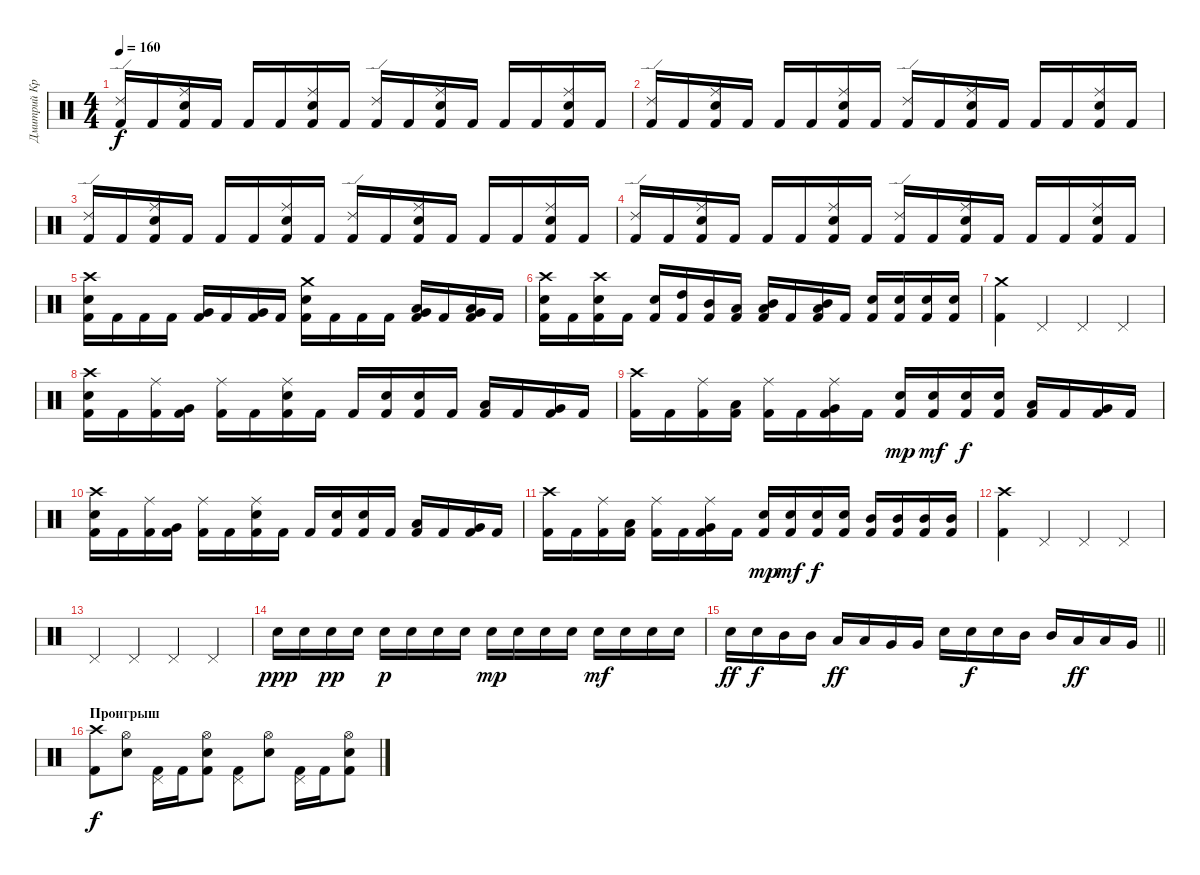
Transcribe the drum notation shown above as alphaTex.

\track ("Дмитрий Кривенков" "Дмитрий Кр") {instrument percussion}
\staff {score}
\articulation defaults
\ts (4 4)
\tempo 160
\clef neutral
\ks c
("Ride (edge) 2" "Kick (hit) 2").16{dy f} "Kick (hit) 2".16 ("Ride (middle)" "Electric Snare (hit)" "Kick (hit) 2").16 "Kick (hit) 2".16 "Kick (hit) 2".16 "Kick (hit) 2".16 ("Ride (middle)" "Electric Snare (hit)" "Kick (hit) 2").16 "Kick (hit) 2".16 ("Ride (edge) 2" "Kick (hit) 2").16 "Kick (hit) 2".16 ("Ride (middle)" "Electric Snare (hit)" "Kick (hit) 2").16 "Kick (hit) 2".16 "Kick (hit) 2".16 "Kick (hit) 2".16 ("Ride (middle)" "Electric Snare (hit)" "Kick (hit) 2").16 "Kick (hit) 2".16 |
("Ride (edge) 2" "Kick (hit) 2").16 "Kick (hit) 2".16 ("Ride (middle)" "Electric Snare (hit)" "Kick (hit) 2").16 "Kick (hit) 2".16 "Kick (hit) 2".16 "Kick (hit) 2".16 ("Ride (middle)" "Electric Snare (hit)" "Kick (hit) 2").16 "Kick (hit) 2".16 ("Ride (edge) 2" "Kick (hit) 2").16 "Kick (hit) 2".16 ("Ride (middle)" "Electric Snare (hit)" "Kick (hit) 2").16 "Kick (hit) 2".16 "Kick (hit) 2".16 "Kick (hit) 2".16 ("Ride (middle)" "Electric Snare (hit)" "Kick (hit) 2").16 "Kick (hit) 2".16 |
("Ride (edge) 2" "Kick (hit) 2").16 "Kick (hit) 2".16 ("Ride (middle)" "Electric Snare (hit)" "Kick (hit) 2").16 "Kick (hit) 2".16 "Kick (hit) 2".16 "Kick (hit) 2".16 ("Ride (middle)" "Electric Snare (hit)" "Kick (hit) 2").16 "Kick (hit) 2".16 ("Ride (edge) 2" "Kick (hit) 2").16 "Kick (hit) 2".16 ("Ride (middle)" "Electric Snare (hit)" "Kick (hit) 2").16 "Kick (hit) 2".16 "Kick (hit) 2".16 "Kick (hit) 2".16 ("Ride (middle)" "Electric Snare (hit)" "Kick (hit) 2").16 "Kick (hit) 2".16 |
("Ride (edge) 2" "Kick (hit) 2").16 "Kick (hit) 2".16 ("Ride (middle)" "Electric Snare (hit)" "Kick (hit) 2").16 "Kick (hit) 2".16 "Kick (hit) 2".16 "Kick (hit) 2".16 ("Ride (middle)" "Electric Snare (hit)" "Kick (hit) 2").16 "Kick (hit) 2".16 ("Ride (edge) 2" "Kick (hit) 2").16 "Kick (hit) 2".16 ("Ride (middle)" "Electric Snare (hit)" "Kick (hit) 2").16 "Kick (hit) 2".16 "Kick (hit) 2".16 "Kick (hit) 2".16 ("Ride (middle)" "Electric Snare (hit)" "Kick (hit) 2").16 "Kick (hit) 2".16 |
("Crash high (hit)" "Electric Snare (hit)" "Kick (hit) 2").16 "Kick (hit) 2".16 "Kick (hit) 2".16 "Kick (hit) 2".16 ("Very Low Tom (hit)" "Kick (hit) 2").16 "Kick (hit) 2".16 ("Very Low Tom (hit)" "Kick (hit) 2").16 "Kick (hit) 2".16 ("Crash medium (hit)" "Electric Snare (hit)" "Kick (hit) 2").16 "Kick (hit) 2".16 "Kick (hit) 2".16 "Kick (hit) 2".16 ("Very Low Tom (hit)" "Low Floor Tom (hit)" "Kick (hit) 2").16 "Kick (hit) 2".16 ("Very Low Tom (hit)" "Low Floor Tom (hit)" "Kick (hit) 2").16 "Kick (hit) 2".16 |
("Crash high (hit)" "Electric Snare (hit)" "Kick (hit) 2").16 "Kick (hit) 2".16 ("Crash high (hit)" "Electric Snare (hit)" "Kick (hit) 2").16 "Kick (hit) 2".16 ("Electric Snare (hit)" "Kick (hit) 2").16 ("High Tom (hit)" "Kick (hit) 2").16 ("Mid Tom (hit)" "Kick (hit) 2").16 ("Low Tom (hit)" "Kick (hit) 2").16 ("Mid Tom (hit)" "Low Tom (hit)" "Kick (hit) 2").16 "Kick (hit) 2".16 ("Mid Tom (hit)" "Low Tom (hit)" "Kick (hit) 2").16 "Kick (hit) 2".16 ("Electric Snare (hit)" "Kick (hit) 2").16 ("Electric Snare (hit)" "Kick (hit) 2").16 ("Electric Snare (hit)" "Kick (hit) 2").16 ("Electric Snare (hit)" "Kick (hit) 2").16 |
("Crash medium (hit)" "Kick (hit) 2").4 "Pedal Hi-Hat (hit)".4 "Pedal Hi-Hat (hit)".4 "Pedal Hi-Hat (hit)".4 |
("Crash high (hit)" "Electric Snare (hit)" "Kick (hit) 2").16 "Kick (hit) 2".16 ("Ride (middle)" "Kick (hit) 2").16 ("Very Low Tom (hit)" "Kick (hit) 2").16 ("Ride (middle)" "Kick (hit) 2").16 "Kick (hit) 2".16 ("Ride (middle)" "Electric Snare (hit)" "Kick (hit) 2").16 "Kick (hit) 2".16 "Kick (hit) 2".16 ("Electric Snare (hit)" "Kick (hit) 2").16 ("Electric Snare (hit)" "Kick (hit) 2").16 "Kick (hit) 2".16 ("Low Tom (hit)" "Kick (hit) 2").16 "Kick (hit) 2".16 ("Very Low Tom (hit)" "Kick (hit) 2").16 "Kick (hit) 2".16 |
("Crash high (hit)" "Kick (hit) 2").16 "Kick (hit) 2".16 ("Ride (middle)" "Kick (hit) 2").16 ("Low Tom (hit)" "Kick (hit) 2").16 ("Ride (middle)" "Kick (hit) 2").16 "Kick (hit) 2".16 ("Ride (middle)" "Very Low Tom (hit)" "Kick (hit) 2").16 "Kick (hit) 2".16 ("Electric Snare (hit)" "Kick (hit) 2").16{dy mp} ("Electric Snare (hit)" "Kick (hit) 2").16{dy mf} ("Electric Snare (hit)" "Kick (hit) 2").16{dy f} ("Electric Snare (hit)" "Kick (hit) 2").16 ("Low Tom (hit)" "Kick (hit) 2").16 "Kick (hit) 2".16 ("Very Low Tom (hit)" "Kick (hit) 2").16 "Kick (hit) 2".16 |
("Crash high (hit)" "Electric Snare (hit)" "Kick (hit) 2").16 "Kick (hit) 2".16 ("Ride (middle)" "Kick (hit) 2").16 ("Very Low Tom (hit)" "Kick (hit) 2").16 ("Ride (middle)" "Kick (hit) 2").16 "Kick (hit) 2".16 ("Ride (middle)" "Electric Snare (hit)" "Kick (hit) 2").16 "Kick (hit) 2".16 "Kick (hit) 2".16 ("Electric Snare (hit)" "Kick (hit) 2").16 ("Electric Snare (hit)" "Kick (hit) 2").16 "Kick (hit) 2".16 ("Low Tom (hit)" "Kick (hit) 2").16 "Kick (hit) 2".16 ("Very Low Tom (hit)" "Kick (hit) 2").16 "Kick (hit) 2".16 |
("Crash high (hit)" "Kick (hit) 2").16 "Kick (hit) 2".16 ("Ride (middle)" "Kick (hit) 2").16 ("Low Tom (hit)" "Kick (hit) 2").16 ("Ride (middle)" "Kick (hit) 2").16 "Kick (hit) 2".16 ("Ride (middle)" "Very Low Tom (hit)" "Kick (hit) 2").16 "Kick (hit) 2".16 ("Electric Snare (hit)" "Kick (hit) 2").16{dy mp} ("Electric Snare (hit)" "Kick (hit) 2").16{dy mf} ("Electric Snare (hit)" "Kick (hit) 2").16{dy f} ("Electric Snare (hit)" "Kick (hit) 2").16 ("Mid Tom (hit)" "Kick (hit) 2").16 ("Mid Tom (hit)" "Kick (hit) 2").16 ("Mid Tom (hit)" "Kick (hit) 2").16 ("Mid Tom (hit)" "Kick (hit) 2").16 |
("Crash high (hit)" "Kick (hit) 2").4 "Pedal Hi-Hat (hit)".4 "Pedal Hi-Hat (hit)".4 "Pedal Hi-Hat (hit)".4 |
"Pedal Hi-Hat (hit)".4 "Pedal Hi-Hat (hit)".4 "Pedal Hi-Hat (hit)".4 "Pedal Hi-Hat (hit)".4 |
"Electric Snare (hit)".16{dy ppp} "Electric Snare (hit)".16 "Electric Snare (hit)".16{dy pp} "Electric Snare (hit)".16 "Electric Snare (hit)".16{dy p} "Electric Snare (hit)".16 "Electric Snare (hit)".16 "Electric Snare (hit)".16 "Electric Snare (hit)".16{dy mp} "Electric Snare (hit)".16 "Electric Snare (hit)".16 "Electric Snare (hit)".16 "Electric Snare (hit)".16{dy mf} "Electric Snare (hit)".16 "Electric Snare (hit)".16 "Electric Snare (hit)".16 |
\barLineRight lightlight "Electric Snare (hit)".16{dy ff} "Electric Snare (hit)".16{dy f} "Mid Tom (hit)".16 "Mid Tom (hit)".16 "Low Tom (hit)".16{dy ff} "Low Tom (hit)".16 "Very Low Tom (hit)".16 "Very Low Tom (hit)".16 "Electric Snare (hit)".16 "Electric Snare (hit)".16{dy f} "Electric Snare (hit)".16 "Mid Tom (hit)".16 "Mid Tom (hit)".16 "Low Tom (hit)".16{dy ff} "Low Tom (hit)".16 "Very Low Tom (hit)".16
|
\section ("" "Проигрыш")
("Crash high (hit)" "Kick (hit) 2").8{dy f} ("Hi-Hat (open)" "Electric Snare (hit)").8 ("Pedal Hi-Hat (hit)" "Kick (hit) 2").16 "Kick (hit) 2".16 ("Hi-Hat (open)" "Electric Snare (hit)" "Kick (hit) 2").8 ("Pedal Hi-Hat (hit)" "Kick (hit) 2").8 ("Hi-Hat (open)" "Electric Snare (hit)").8 ("Pedal Hi-Hat (hit)" "Kick (hit) 2").16 "Kick (hit) 2".16 ("Hi-Hat (open)" "Electric Snare (hit)" "Kick (hit) 2").8
